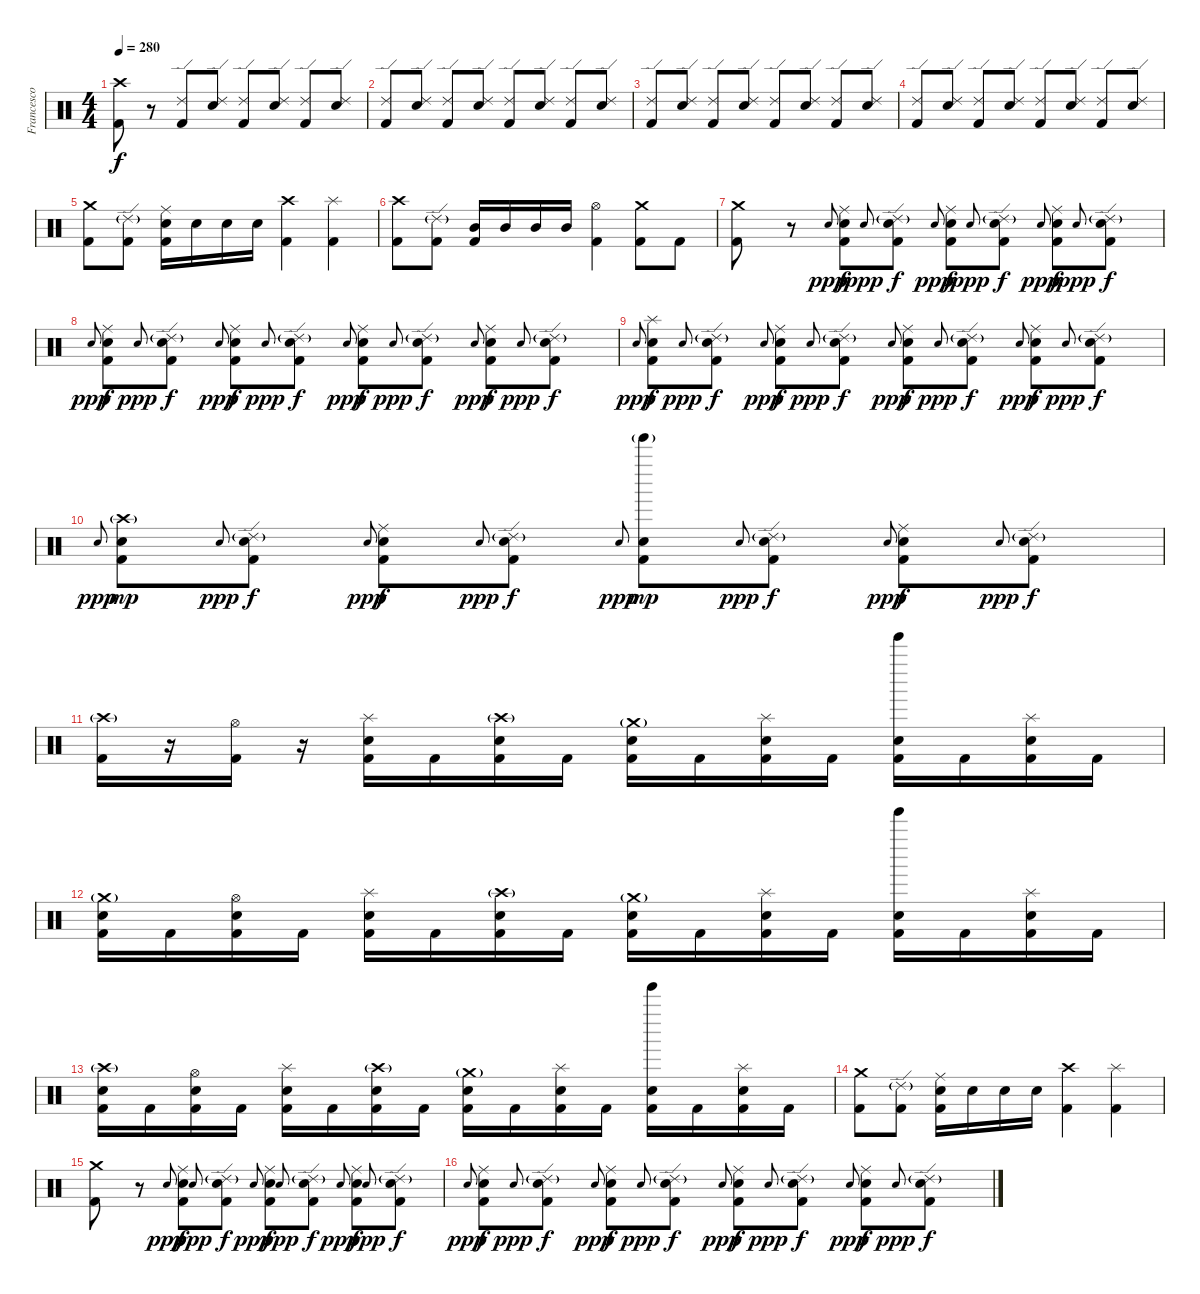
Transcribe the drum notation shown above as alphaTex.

\track ("Francesco Ferrini" "Francesco ") {instrument percussion}
\staff {score}
\articulation defaults
\ts (4 4)
\tempo 280
\clef neutral
\ks c
("Crash high (hit)" "Kick (hit) 2").8{dy f} r.8 ("Ride (edge) 2" "Kick (hit) 2").8 ("Ride (edge) 2" "Electric Snare (hit)").8 ("Ride (edge) 2" "Kick (hit) 2").8 ("Ride (edge) 2" "Electric Snare (hit)").8 ("Ride (edge) 2" "Kick (hit) 2").8 ("Ride (edge) 2" "Electric Snare (hit)").8 |
("Ride (edge) 2" "Kick (hit) 2").8 ("Ride (edge) 2" "Electric Snare (hit)").8 ("Ride (edge) 2" "Kick (hit) 2").8 ("Ride (edge) 2" "Electric Snare (hit)").8 ("Ride (edge) 2" "Kick (hit) 2").8 ("Ride (edge) 2" "Electric Snare (hit)").8 ("Ride (edge) 2" "Kick (hit) 2").8 ("Ride (edge) 2" "Electric Snare (hit)").8 |
("Ride (edge) 2" "Kick (hit) 2").8 ("Ride (edge) 2" "Electric Snare (hit)").8 ("Ride (edge) 2" "Kick (hit) 2").8 ("Ride (edge) 2" "Electric Snare (hit)").8 ("Ride (edge) 2" "Kick (hit) 2").8 ("Ride (edge) 2" "Electric Snare (hit)").8 ("Ride (edge) 2" "Kick (hit) 2").8 ("Ride (edge) 2" "Electric Snare (hit)").8 |
("Ride (edge) 2" "Kick (hit) 2").8 ("Ride (edge) 2" "Electric Snare (hit)").8 ("Ride (edge) 2" "Kick (hit) 2").8 ("Ride (edge) 2" "Electric Snare (hit)").8 ("Ride (edge) 2" "Kick (hit) 2").8 ("Ride (edge) 2" "Electric Snare (hit)").8 ("Ride (edge) 2" "Kick (hit) 2").8 ("Ride (edge) 2" "Electric Snare (hit)").8 |
("Crash medium (hit)" "Kick (hit) 2").8 ("Ride (edge) 2"{g} "Kick (hit) 2").8 ("Ride (middle)" "Electric Snare (hit)" "Kick (hit) 2").16 "Electric Snare (hit)".16 "Electric Snare (hit)".16 "Electric Snare (hit)".16 ("Crash high (hit)" "Kick (hit) 2").4 ("Splash (hit)" "Kick (hit) 2").4 |
("Crash high (hit)" "Kick (hit) 2").8 ("Ride (edge) 2"{g} "Kick (hit) 2").8 ("Mid Tom (hit)" "Kick (hit) 2").16 "Mid Tom (hit)".16 "Mid Tom (hit)".16 "Mid Tom (hit)".16 ("Hi-Hat (open)" "Kick (hit) 2").4 ("Crash medium (hit)" "Kick (hit) 2").8 "Kick (hit) 2".8 |
("Crash medium (hit)" "Kick (hit) 2").8 r.8 "Electric Snare (hit)"{h}.8{gr onbeat dy ppp} ("Ride (middle)" "Electric Snare (hit)" "Kick (hit) 2").8{dy f} "Electric Snare (hit)"{h}.8{gr onbeat dy ppp} ("Ride (edge) 2"{g} "Electric Snare (hit)" "Kick (hit) 2").8{dy f} "Electric Snare (hit)"{h}.8{gr onbeat dy ppp} ("Ride (middle)" "Electric Snare (hit)" "Kick (hit) 2").8{dy f} "Electric Snare (hit)"{h}.8{gr onbeat dy ppp} ("Ride (edge) 2"{g} "Electric Snare (hit)" "Kick (hit) 2").8{dy f} "Electric Snare (hit)"{h}.8{gr onbeat dy ppp} ("Ride (middle)" "Electric Snare (hit)" "Kick (hit) 2").8{dy f} "Electric Snare (hit)"{h}.8{gr onbeat dy ppp} ("Ride (edge) 2"{g} "Electric Snare (hit)" "Kick (hit) 2").8{dy f} |
"Electric Snare (hit)"{h}.8{gr onbeat dy ppp} ("Ride (middle)" "Electric Snare (hit)" "Kick (hit) 2").8{dy f} "Electric Snare (hit)"{h}.8{gr onbeat dy ppp} ("Ride (edge) 2"{g} "Electric Snare (hit)" "Kick (hit) 2").8{dy f} "Electric Snare (hit)"{h}.8{gr onbeat dy ppp} ("Ride (middle)" "Electric Snare (hit)" "Kick (hit) 2").8{dy f} "Electric Snare (hit)"{h}.8{gr onbeat dy ppp} ("Ride (edge) 2"{g} "Electric Snare (hit)" "Kick (hit) 2").8{dy f} "Electric Snare (hit)"{h}.8{gr onbeat dy ppp} ("Ride (middle)" "Electric Snare (hit)" "Kick (hit) 2").8{dy f} "Electric Snare (hit)"{h}.8{gr onbeat dy ppp} ("Ride (edge) 2"{g} "Electric Snare (hit)" "Kick (hit) 2").8{dy f} "Electric Snare (hit)"{h}.8{gr onbeat dy ppp} ("Ride (middle)" "Electric Snare (hit)" "Kick (hit) 2").8{dy f} "Electric Snare (hit)"{h}.8{gr onbeat dy ppp} ("Ride (edge) 2"{g} "Electric Snare (hit)" "Kick (hit) 2").8{dy f} |
"Electric Snare (hit)"{h}.8{gr onbeat dy ppp} ("Splash (hit)" "Electric Snare (hit)" "Kick (hit) 2").8{dy f} "Electric Snare (hit)"{h}.8{gr onbeat dy ppp} ("Ride (edge) 2"{g} "Electric Snare (hit)" "Kick (hit) 2").8{dy f} "Electric Snare (hit)"{h}.8{gr onbeat dy ppp} ("Ride (middle)" "Electric Snare (hit)" "Kick (hit) 2").8{dy f} "Electric Snare (hit)"{h}.8{gr onbeat dy ppp} ("Ride (edge) 2"{g} "Electric Snare (hit)" "Kick (hit) 2").8{dy f} "Electric Snare (hit)"{h}.8{gr onbeat dy ppp} ("Ride (middle)" "Electric Snare (hit)" "Kick (hit) 2").8{dy f} "Electric Snare (hit)"{h}.8{gr onbeat dy ppp} ("Ride (edge) 2"{g} "Electric Snare (hit)" "Kick (hit) 2").8{dy f} "Electric Snare (hit)"{h}.8{gr onbeat dy ppp} ("Ride (middle)" "Electric Snare (hit)" "Kick (hit) 2").8{dy f} "Electric Snare (hit)"{h}.8{gr onbeat dy ppp} ("Ride (edge) 2"{g} "Electric Snare (hit)" "Kick (hit) 2").8{dy f} |
"Electric Snare (hit)"{h}.8{gr onbeat dy ppp} ("Crash high (hit)"{g} "Electric Snare (hit)" "Kick (hit) 2").8{dy mp} "Electric Snare (hit)"{h}.8{gr onbeat dy ppp} ("Ride (edge) 2"{g} "Electric Snare (hit)" "Kick (hit) 2").8{dy f} "Electric Snare (hit)"{h}.8{gr onbeat dy ppp} ("Ride (middle)" "Electric Snare (hit)" "Kick (hit) 2").8{dy f} "Electric Snare (hit)"{h}.8{gr onbeat dy ppp} ("Ride (edge) 2"{g} "Electric Snare (hit)" "Kick (hit) 2").8{dy f} "Electric Snare (hit)"{h}.8{gr onbeat dy ppp} ("Tinkle Bell (hit)"{g} "Electric Snare (hit)" "Kick (hit) 2").8{dy mp} "Electric Snare (hit)"{h}.8{gr onbeat dy ppp} ("Ride (edge) 2"{g} "Electric Snare (hit)" "Kick (hit) 2").8{dy f} "Electric Snare (hit)"{h}.8{gr onbeat dy ppp} ("Ride (middle)" "Electric Snare (hit)" "Kick (hit) 2").8{dy f} "Electric Snare (hit)"{h}.8{gr onbeat dy ppp} ("Ride (edge) 2"{g} "Electric Snare (hit)" "Kick (hit) 2").8{dy f} |
("Crash high (hit)"{g} "Kick (hit) 2").16 r.16 ("Hi-Hat (open)" "Kick (hit) 2").16 r.16 ("Splash (hit)" "Electric Snare (hit)" "Kick (hit) 2").16 "Kick (hit) 2".16 ("Crash high (hit)"{g} "Electric Snare (hit)" "Kick (hit) 2").16 "Kick (hit) 2".16 ("Crash medium (hit)"{g} "Electric Snare (hit)" "Kick (hit) 2").16 "Kick (hit) 2".16 ("Splash (hit)" "Electric Snare (hit)" "Kick (hit) 2").16 "Kick (hit) 2".16 ("Tinkle Bell (hit)" "Electric Snare (hit)" "Kick (hit) 2").16 "Kick (hit) 2".16 ("Splash (hit)" "Electric Snare (hit)" "Kick (hit) 2").16 "Kick (hit) 2".16 |
("Crash medium (hit)"{g} "Electric Snare (hit)" "Kick (hit) 2").16 "Kick (hit) 2".16 ("Hi-Hat (open)" "Electric Snare (hit)" "Kick (hit) 2").16 "Kick (hit) 2".16 ("Splash (hit)" "Electric Snare (hit)" "Kick (hit) 2").16 "Kick (hit) 2".16 ("Crash high (hit)"{g} "Electric Snare (hit)" "Kick (hit) 2").16 "Kick (hit) 2".16 ("Crash medium (hit)"{g} "Electric Snare (hit)" "Kick (hit) 2").16 "Kick (hit) 2".16 ("Splash (hit)" "Electric Snare (hit)" "Kick (hit) 2").16 "Kick (hit) 2".16 ("Tinkle Bell (hit)" "Electric Snare (hit)" "Kick (hit) 2").16 "Kick (hit) 2".16 ("Splash (hit)" "Electric Snare (hit)" "Kick (hit) 2").16 "Kick (hit) 2".16 |
("Crash high (hit)"{g} "Electric Snare (hit)" "Kick (hit) 2").16 "Kick (hit) 2".16 ("Hi-Hat (open)" "Electric Snare (hit)" "Kick (hit) 2").16 "Kick (hit) 2".16 ("Splash (hit)" "Electric Snare (hit)" "Kick (hit) 2").16 "Kick (hit) 2".16 ("Crash high (hit)"{g} "Electric Snare (hit)" "Kick (hit) 2").16 "Kick (hit) 2".16 ("Crash medium (hit)"{g} "Electric Snare (hit)" "Kick (hit) 2").16 "Kick (hit) 2".16 ("Splash (hit)" "Electric Snare (hit)" "Kick (hit) 2").16 "Kick (hit) 2".16 ("Tinkle Bell (hit)" "Electric Snare (hit)" "Kick (hit) 2").16 "Kick (hit) 2".16 ("Splash (hit)" "Electric Snare (hit)" "Kick (hit) 2").16 "Kick (hit) 2".16 |
("Crash medium (hit)" "Kick (hit) 2").8 ("Ride (edge) 2"{g} "Kick (hit) 2").8 ("Ride (middle)" "Electric Snare (hit)" "Kick (hit) 2").16 "Electric Snare (hit)".16 "Electric Snare (hit)".16 "Electric Snare (hit)".16 ("Crash high (hit)" "Kick (hit) 2").4 ("Splash (hit)" "Kick (hit) 2").4 |
("Crash medium (hit)" "Kick (hit) 2").8 r.8 "Electric Snare (hit)"{h}.8{gr onbeat dy ppp} ("Ride (middle)" "Electric Snare (hit)" "Kick (hit) 2").8{dy f} "Electric Snare (hit)"{h}.8{gr onbeat dy ppp} ("Ride (edge) 2"{g} "Electric Snare (hit)" "Kick (hit) 2").8{dy f} "Electric Snare (hit)"{h}.8{gr onbeat dy ppp} ("Ride (middle)" "Electric Snare (hit)" "Kick (hit) 2").8{dy f} "Electric Snare (hit)"{h}.8{gr onbeat dy ppp} ("Ride (edge) 2"{g} "Electric Snare (hit)" "Kick (hit) 2").8{dy f} "Electric Snare (hit)"{h}.8{gr onbeat dy ppp} ("Ride (middle)" "Electric Snare (hit)" "Kick (hit) 2").8{dy f} "Electric Snare (hit)"{h}.8{gr onbeat dy ppp} ("Ride (edge) 2"{g} "Electric Snare (hit)" "Kick (hit) 2").8{dy f} |
"Electric Snare (hit)"{h}.8{gr onbeat dy ppp} ("Ride (middle)" "Electric Snare (hit)" "Kick (hit) 2").8{dy f} "Electric Snare (hit)"{h}.8{gr onbeat dy ppp} ("Ride (edge) 2"{g} "Electric Snare (hit)" "Kick (hit) 2").8{dy f} "Electric Snare (hit)"{h}.8{gr onbeat dy ppp} ("Ride (middle)" "Electric Snare (hit)" "Kick (hit) 2").8{dy f} "Electric Snare (hit)"{h}.8{gr onbeat dy ppp} ("Ride (edge) 2"{g} "Electric Snare (hit)" "Kick (hit) 2").8{dy f} "Electric Snare (hit)"{h}.8{gr onbeat dy ppp} ("Ride (middle)" "Electric Snare (hit)" "Kick (hit) 2").8{dy f} "Electric Snare (hit)"{h}.8{gr onbeat dy ppp} ("Ride (edge) 2"{g} "Electric Snare (hit)" "Kick (hit) 2").8{dy f} "Electric Snare (hit)"{h}.8{gr onbeat dy ppp} ("Ride (middle)" "Electric Snare (hit)" "Kick (hit) 2").8{dy f} "Electric Snare (hit)"{h}.8{gr onbeat dy ppp} ("Ride (edge) 2"{g} "Electric Snare (hit)" "Kick (hit) 2").8{dy f}
